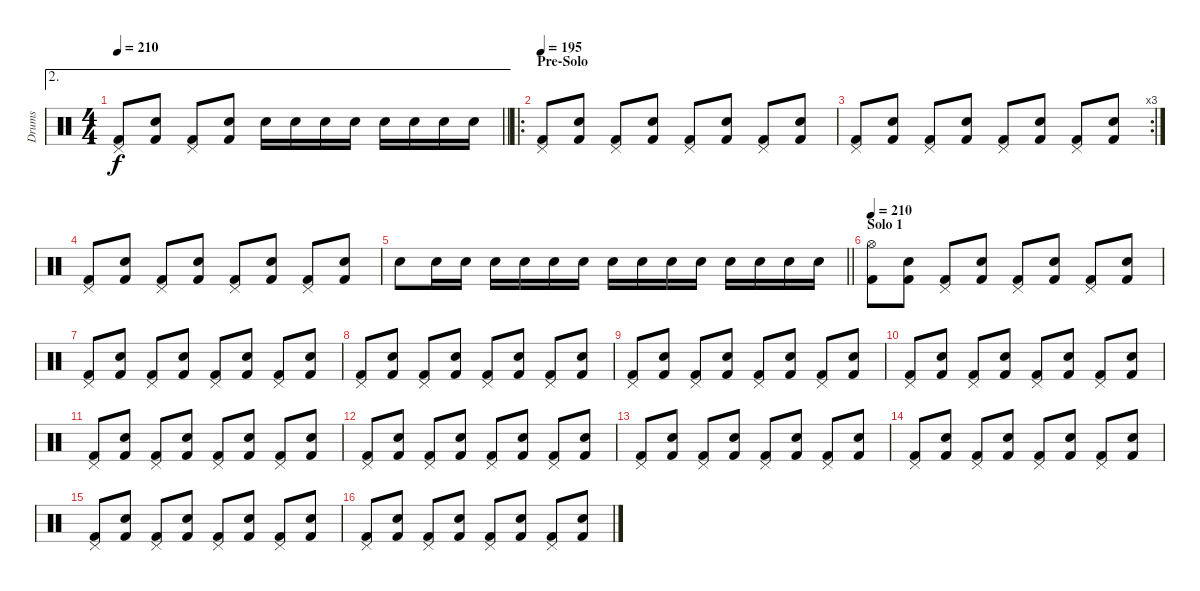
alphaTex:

\track ("Drums" "Drums") {instrument percussion}
\staff {score}
\articulation defaults
\ae 2
\ts (4 4)
\tempo 210
\clef neutral
\barLineRight lightlight
\ks c
("Pedal Hi-Hat (hit)" "Kick (hit) 2").8{dy f} ("Snare (hit) 2" "Kick (hit) 2").8 ("Pedal Hi-Hat (hit)" "Kick (hit) 2").8 ("Snare (hit) 2" "Kick (hit) 2").8 "Snare (hit) 2".16 "Snare (hit) 2".16 "Snare (hit) 2".16 "Snare (hit) 2".16 "Snare (hit) 2".16 "Snare (hit) 2".16 "Snare (hit) 2".16 "Snare (hit) 2".16 |
\ro
\section ("" "Pre-Solo")
\tempo 195
("Pedal Hi-Hat (hit)" "Kick (hit) 2").8 ("Snare (hit) 2" "Kick (hit) 2").8 ("Pedal Hi-Hat (hit)" "Kick (hit) 2").8 ("Snare (hit) 2" "Kick (hit) 2").8 ("Pedal Hi-Hat (hit)" "Kick (hit) 2").8 ("Snare (hit) 2" "Kick (hit) 2").8 ("Pedal Hi-Hat (hit)" "Kick (hit) 2").8 ("Snare (hit) 2" "Kick (hit) 2").8 |
\rc 3
("Pedal Hi-Hat (hit)" "Kick (hit) 2").8 ("Snare (hit) 2" "Kick (hit) 2").8 ("Pedal Hi-Hat (hit)" "Kick (hit) 2").8 ("Snare (hit) 2" "Kick (hit) 2").8 ("Pedal Hi-Hat (hit)" "Kick (hit) 2").8 ("Snare (hit) 2" "Kick (hit) 2").8 ("Pedal Hi-Hat (hit)" "Kick (hit) 2").8 ("Snare (hit) 2" "Kick (hit) 2").8 |
("Pedal Hi-Hat (hit)" "Kick (hit) 2").8 ("Snare (hit) 2" "Kick (hit) 2").8 ("Pedal Hi-Hat (hit)" "Kick (hit) 2").8 ("Snare (hit) 2" "Kick (hit) 2").8 ("Pedal Hi-Hat (hit)" "Kick (hit) 2").8 ("Snare (hit) 2" "Kick (hit) 2").8 ("Pedal Hi-Hat (hit)" "Kick (hit) 2").8 ("Snare (hit) 2" "Kick (hit) 2").8 |
\barLineRight lightlight "Snare (hit) 2".8 "Snare (hit) 2".16 "Snare (hit) 2".16 "Snare (hit) 2".16 "Snare (hit) 2".16 "Snare (hit) 2".16 "Snare (hit) 2".16 "Snare (hit) 2".16 "Snare (hit) 2".16 "Snare (hit) 2".16 "Snare (hit) 2".16 "Snare (hit) 2".16 "Snare (hit) 2".16 "Snare (hit) 2".16 "Snare (hit) 2".16
|
\section ("" "Solo 1")
\tempo 210
("Hi-Hat (open)" "Kick (hit) 2").8 ("Snare (hit) 2" "Kick (hit) 2").8 ("Pedal Hi-Hat (hit)" "Kick (hit) 2").8 ("Snare (hit) 2" "Kick (hit) 2").8 ("Pedal Hi-Hat (hit)" "Kick (hit) 2").8 ("Snare (hit) 2" "Kick (hit) 2").8 ("Pedal Hi-Hat (hit)" "Kick (hit) 2").8 ("Snare (hit) 2" "Kick (hit) 2").8 |
("Pedal Hi-Hat (hit)" "Kick (hit) 2").8 ("Snare (hit) 2" "Kick (hit) 2").8 ("Pedal Hi-Hat (hit)" "Kick (hit) 2").8 ("Snare (hit) 2" "Kick (hit) 2").8 ("Pedal Hi-Hat (hit)" "Kick (hit) 2").8 ("Snare (hit) 2" "Kick (hit) 2").8 ("Pedal Hi-Hat (hit)" "Kick (hit) 2").8 ("Snare (hit) 2" "Kick (hit) 2").8 |
("Pedal Hi-Hat (hit)" "Kick (hit) 2").8 ("Snare (hit) 2" "Kick (hit) 2").8 ("Pedal Hi-Hat (hit)" "Kick (hit) 2").8 ("Snare (hit) 2" "Kick (hit) 2").8 ("Pedal Hi-Hat (hit)" "Kick (hit) 2").8 ("Snare (hit) 2" "Kick (hit) 2").8 ("Pedal Hi-Hat (hit)" "Kick (hit) 2").8 ("Snare (hit) 2" "Kick (hit) 2").8 |
("Pedal Hi-Hat (hit)" "Kick (hit) 2").8 ("Snare (hit) 2" "Kick (hit) 2").8 ("Pedal Hi-Hat (hit)" "Kick (hit) 2").8 ("Snare (hit) 2" "Kick (hit) 2").8 ("Pedal Hi-Hat (hit)" "Kick (hit) 2").8 ("Snare (hit) 2" "Kick (hit) 2").8 ("Pedal Hi-Hat (hit)" "Kick (hit) 2").8 ("Snare (hit) 2" "Kick (hit) 2").8 |
("Pedal Hi-Hat (hit)" "Kick (hit) 2").8 ("Snare (hit) 2" "Kick (hit) 2").8 ("Pedal Hi-Hat (hit)" "Kick (hit) 2").8 ("Snare (hit) 2" "Kick (hit) 2").8 ("Pedal Hi-Hat (hit)" "Kick (hit) 2").8 ("Snare (hit) 2" "Kick (hit) 2").8 ("Pedal Hi-Hat (hit)" "Kick (hit) 2").8 ("Snare (hit) 2" "Kick (hit) 2").8 |
("Pedal Hi-Hat (hit)" "Kick (hit) 2").8 ("Snare (hit) 2" "Kick (hit) 2").8 ("Pedal Hi-Hat (hit)" "Kick (hit) 2").8 ("Snare (hit) 2" "Kick (hit) 2").8 ("Pedal Hi-Hat (hit)" "Kick (hit) 2").8 ("Snare (hit) 2" "Kick (hit) 2").8 ("Pedal Hi-Hat (hit)" "Kick (hit) 2").8 ("Snare (hit) 2" "Kick (hit) 2").8 |
("Pedal Hi-Hat (hit)" "Kick (hit) 2").8 ("Snare (hit) 2" "Kick (hit) 2").8 ("Pedal Hi-Hat (hit)" "Kick (hit) 2").8 ("Snare (hit) 2" "Kick (hit) 2").8 ("Pedal Hi-Hat (hit)" "Kick (hit) 2").8 ("Snare (hit) 2" "Kick (hit) 2").8 ("Pedal Hi-Hat (hit)" "Kick (hit) 2").8 ("Snare (hit) 2" "Kick (hit) 2").8 |
("Pedal Hi-Hat (hit)" "Kick (hit) 2").8 ("Snare (hit) 2" "Kick (hit) 2").8 ("Pedal Hi-Hat (hit)" "Kick (hit) 2").8 ("Snare (hit) 2" "Kick (hit) 2").8 ("Pedal Hi-Hat (hit)" "Kick (hit) 2").8 ("Snare (hit) 2" "Kick (hit) 2").8 ("Pedal Hi-Hat (hit)" "Kick (hit) 2").8 ("Snare (hit) 2" "Kick (hit) 2").8 |
("Pedal Hi-Hat (hit)" "Kick (hit) 2").8 ("Snare (hit) 2" "Kick (hit) 2").8 ("Pedal Hi-Hat (hit)" "Kick (hit) 2").8 ("Snare (hit) 2" "Kick (hit) 2").8 ("Pedal Hi-Hat (hit)" "Kick (hit) 2").8 ("Snare (hit) 2" "Kick (hit) 2").8 ("Pedal Hi-Hat (hit)" "Kick (hit) 2").8 ("Snare (hit) 2" "Kick (hit) 2").8 |
("Pedal Hi-Hat (hit)" "Kick (hit) 2").8 ("Snare (hit) 2" "Kick (hit) 2").8 ("Pedal Hi-Hat (hit)" "Kick (hit) 2").8 ("Snare (hit) 2" "Kick (hit) 2").8 ("Pedal Hi-Hat (hit)" "Kick (hit) 2").8 ("Snare (hit) 2" "Kick (hit) 2").8 ("Pedal Hi-Hat (hit)" "Kick (hit) 2").8 ("Snare (hit) 2" "Kick (hit) 2").8 |
("Pedal Hi-Hat (hit)" "Kick (hit) 2").8 ("Snare (hit) 2" "Kick (hit) 2").8 ("Pedal Hi-Hat (hit)" "Kick (hit) 2").8 ("Snare (hit) 2" "Kick (hit) 2").8 ("Pedal Hi-Hat (hit)" "Kick (hit) 2").8 ("Snare (hit) 2" "Kick (hit) 2").8 ("Pedal Hi-Hat (hit)" "Kick (hit) 2").8 ("Snare (hit) 2" "Kick (hit) 2").8
